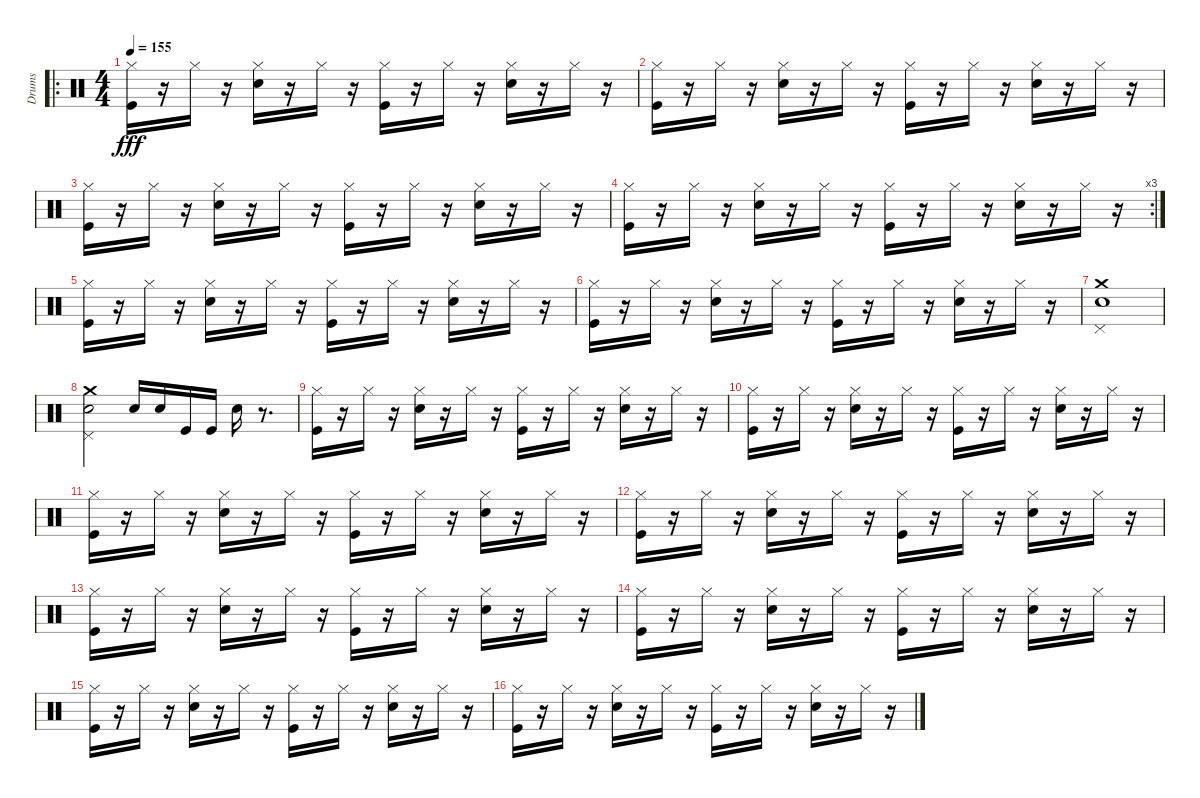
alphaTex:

\track ("Drums" "Drums") {instrument percussion}
\staff {score}
\articulation defaults
\ro
\ts (4 4)
\tempo 155
\clef neutral
\ks c
("Kick (hit)" "Hi-Hat (closed)").16{dy fff} r.16 "Hi-Hat (closed)".16 r.16 ("Snare (hit) 2" "Hi-Hat (closed)").16 r.16 "Hi-Hat (closed)".16 r.16 ("Kick (hit)" "Hi-Hat (closed)").16 r.16 "Hi-Hat (closed)".16 r.16 ("Snare (hit) 2" "Hi-Hat (closed)").16 r.16 "Hi-Hat (closed)".16 r.16 |
("Hi-Hat (closed)" "Kick (hit)").16 r.16 "Hi-Hat (closed)".16 r.16 ("Hi-Hat (closed)" "Snare (hit) 2").16 r.16 "Hi-Hat (closed)".16 r.16 ("Hi-Hat (closed)" "Kick (hit)").16 r.16 "Hi-Hat (closed)".16 r.16 ("Hi-Hat (closed)" "Snare (hit) 2").16 r.16 "Hi-Hat (closed)".16 r.16 |
("Kick (hit)" "Hi-Hat (closed)").16 r.16 "Hi-Hat (closed)".16 r.16 ("Snare (hit) 2" "Hi-Hat (closed)").16 r.16 "Hi-Hat (closed)".16 r.16 ("Kick (hit)" "Hi-Hat (closed)").16 r.16 "Hi-Hat (closed)".16 r.16 ("Snare (hit) 2" "Hi-Hat (closed)").16 r.16 "Hi-Hat (closed)".16 r.16 |
\rc 3
("Hi-Hat (closed)" "Kick (hit)").16 r.16 "Hi-Hat (closed)".16 r.16 ("Hi-Hat (closed)" "Snare (hit) 2").16 r.16 "Hi-Hat (closed)".16 r.16 ("Hi-Hat (closed)" "Kick (hit)").16 r.16 "Hi-Hat (closed)".16 r.16 ("Hi-Hat (closed)" "Snare (hit) 2").16 r.16 "Hi-Hat (closed)".16 r.16 |
("Kick (hit)" "Hi-Hat (closed)").16 r.16 "Hi-Hat (closed)".16 r.16 ("Snare (hit) 2" "Hi-Hat (closed)").16 r.16 "Hi-Hat (closed)".16 r.16 ("Kick (hit)" "Hi-Hat (closed)").16 r.16 "Hi-Hat (closed)".16 r.16 ("Snare (hit) 2" "Hi-Hat (closed)").16 r.16 "Hi-Hat (closed)".16 r.16 |
("Hi-Hat (closed)" "Kick (hit)").16 r.16 "Hi-Hat (closed)".16 r.16 ("Hi-Hat (closed)" "Snare (hit) 2").16 r.16 "Hi-Hat (closed)".16 r.16 ("Hi-Hat (closed)" "Kick (hit)").16 r.16 "Hi-Hat (closed)".16 r.16 ("Hi-Hat (closed)" "Snare (hit) 2").16 r.16 "Hi-Hat (closed)".16 r.16 |
("Snare (hit) 2" "Pedal Hi-Hat (hit)" "Crash medium (hit)").1 |
("Pedal Hi-Hat (hit)" "Snare (hit) 2" "Crash medium (hit)").2 "Snare (hit) 2".16 "Snare (hit) 2".16 "Kick (hit)".16 "Kick (hit)".16 "Snare (hit) 2".16 r.8{d} |
("Kick (hit)" "Hi-Hat (closed)").16 r.16 "Hi-Hat (closed)".16 r.16 ("Snare (hit) 2" "Hi-Hat (closed)").16 r.16 "Hi-Hat (closed)".16 r.16 ("Kick (hit)" "Hi-Hat (closed)").16 r.16 "Hi-Hat (closed)".16 r.16 ("Snare (hit) 2" "Hi-Hat (closed)").16 r.16 "Hi-Hat (closed)".16 r.16 |
("Hi-Hat (closed)" "Kick (hit)").16 r.16 "Hi-Hat (closed)".16 r.16 ("Hi-Hat (closed)" "Snare (hit) 2").16 r.16 "Hi-Hat (closed)".16 r.16 ("Hi-Hat (closed)" "Kick (hit)").16 r.16 "Hi-Hat (closed)".16 r.16 ("Hi-Hat (closed)" "Snare (hit) 2").16 r.16 "Hi-Hat (closed)".16 r.16 |
("Kick (hit)" "Hi-Hat (closed)").16 r.16 "Hi-Hat (closed)".16 r.16 ("Snare (hit) 2" "Hi-Hat (closed)").16 r.16 "Hi-Hat (closed)".16 r.16 ("Kick (hit)" "Hi-Hat (closed)").16 r.16 "Hi-Hat (closed)".16 r.16 ("Snare (hit) 2" "Hi-Hat (closed)").16 r.16 "Hi-Hat (closed)".16 r.16 |
("Hi-Hat (closed)" "Kick (hit)").16 r.16 "Hi-Hat (closed)".16 r.16 ("Hi-Hat (closed)" "Snare (hit) 2").16 r.16 "Hi-Hat (closed)".16 r.16 ("Hi-Hat (closed)" "Kick (hit)").16 r.16 "Hi-Hat (closed)".16 r.16 ("Hi-Hat (closed)" "Snare (hit) 2").16 r.16 "Hi-Hat (closed)".16 r.16 |
("Kick (hit)" "Hi-Hat (closed)").16 r.16 "Hi-Hat (closed)".16 r.16 ("Snare (hit) 2" "Hi-Hat (closed)").16 r.16 "Hi-Hat (closed)".16 r.16 ("Kick (hit)" "Hi-Hat (closed)").16 r.16 "Hi-Hat (closed)".16 r.16 ("Snare (hit) 2" "Hi-Hat (closed)").16 r.16 "Hi-Hat (closed)".16 r.16 |
("Hi-Hat (closed)" "Kick (hit)").16 r.16 "Hi-Hat (closed)".16 r.16 ("Hi-Hat (closed)" "Snare (hit) 2").16 r.16 "Hi-Hat (closed)".16 r.16 ("Hi-Hat (closed)" "Kick (hit)").16 r.16 "Hi-Hat (closed)".16 r.16 ("Hi-Hat (closed)" "Snare (hit) 2").16 r.16 "Hi-Hat (closed)".16 r.16 |
("Kick (hit)" "Hi-Hat (closed)").16 r.16 "Hi-Hat (closed)".16 r.16 ("Snare (hit) 2" "Hi-Hat (closed)").16 r.16 "Hi-Hat (closed)".16 r.16 ("Kick (hit)" "Hi-Hat (closed)").16 r.16 "Hi-Hat (closed)".16 r.16 ("Snare (hit) 2" "Hi-Hat (closed)").16 r.16 "Hi-Hat (closed)".16 r.16 |
("Hi-Hat (closed)" "Kick (hit)").16 r.16 "Hi-Hat (closed)".16 r.16 ("Hi-Hat (closed)" "Snare (hit) 2").16 r.16 "Hi-Hat (closed)".16 r.16 ("Hi-Hat (closed)" "Kick (hit)").16 r.16 "Hi-Hat (closed)".16 r.16 ("Hi-Hat (closed)" "Snare (hit) 2").16 r.16 "Hi-Hat (closed)".16 r.16
